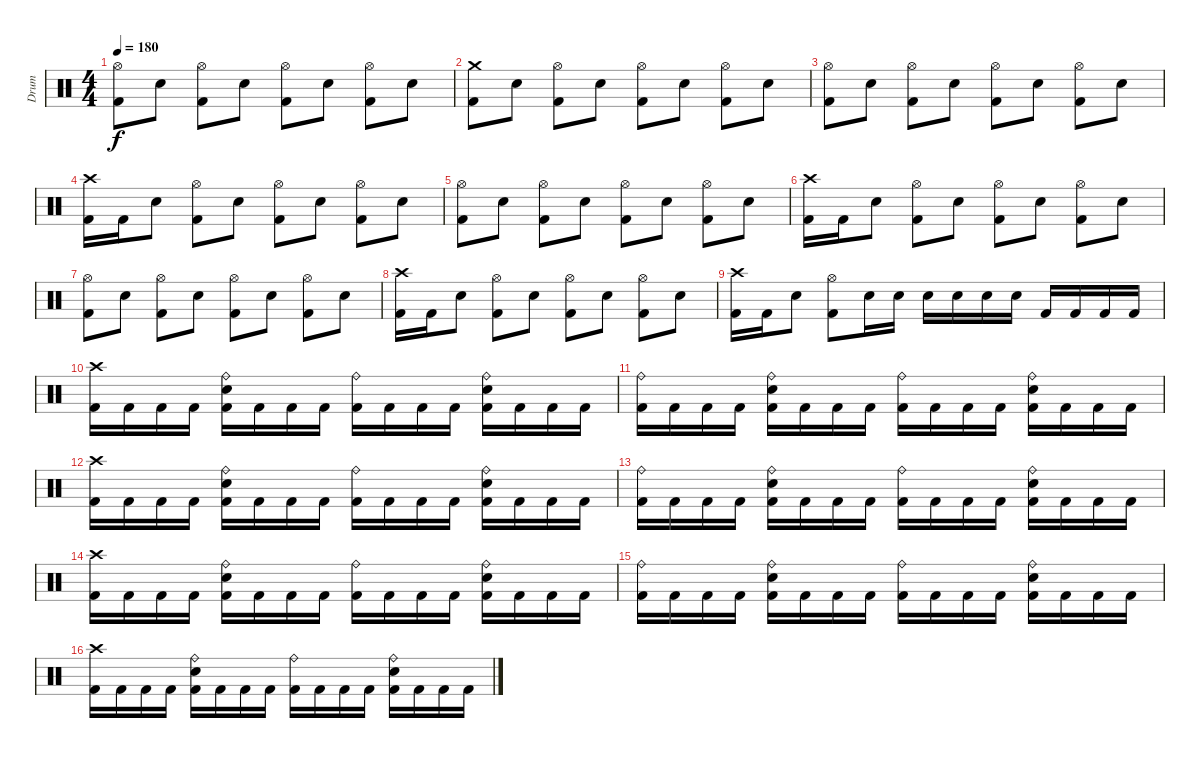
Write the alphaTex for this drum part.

\track ("Drum" "Drum") {instrument percussion}
\staff {score}
\articulation defaults
\ts (4 4)
\tempo 180
\clef neutral
\ks c
("Hi-Hat (open)" "Kick (hit) 2").8{dy f} "Electric Snare (hit)".8 ("Hi-Hat (open)" "Kick (hit) 2").8 "Electric Snare (hit)".8 ("Hi-Hat (open)" "Kick (hit) 2").8 "Electric Snare (hit)".8 ("Hi-Hat (open)" "Kick (hit) 2").8 "Electric Snare (hit)".8 |
("Crash medium (hit)" "Kick (hit) 2").8 "Electric Snare (hit)".8 ("Hi-Hat (open)" "Kick (hit) 2").8 "Electric Snare (hit)".8 ("Hi-Hat (open)" "Kick (hit) 2").8 "Electric Snare (hit)".8 ("Hi-Hat (open)" "Kick (hit) 2").8 "Electric Snare (hit)".8 |
("Hi-Hat (open)" "Kick (hit) 2").8 "Electric Snare (hit)".8 ("Hi-Hat (open)" "Kick (hit) 2").8 "Electric Snare (hit)".8 ("Hi-Hat (open)" "Kick (hit) 2").8 "Electric Snare (hit)".8 ("Hi-Hat (open)" "Kick (hit) 2").8 "Electric Snare (hit)".8 |
("Crash high (hit)" "Kick (hit) 2").16 "Kick (hit) 2".16 "Electric Snare (hit)".8 ("Hi-Hat (open)" "Kick (hit) 2").8 "Electric Snare (hit)".8 ("Hi-Hat (open)" "Kick (hit) 2").8 "Electric Snare (hit)".8 ("Hi-Hat (open)" "Kick (hit) 2").8 "Electric Snare (hit)".8 |
("Hi-Hat (open)" "Kick (hit) 2").8 "Electric Snare (hit)".8 ("Hi-Hat (open)" "Kick (hit) 2").8 "Electric Snare (hit)".8 ("Hi-Hat (open)" "Kick (hit) 2").8 "Electric Snare (hit)".8 ("Hi-Hat (open)" "Kick (hit) 2").8 "Electric Snare (hit)".8 |
("Crash high (hit)" "Kick (hit) 2").16 "Kick (hit) 2".16 "Electric Snare (hit)".8 ("Hi-Hat (open)" "Kick (hit) 2").8 "Electric Snare (hit)".8 ("Hi-Hat (open)" "Kick (hit) 2").8 "Electric Snare (hit)".8 ("Hi-Hat (open)" "Kick (hit) 2").8 "Electric Snare (hit)".8 |
("Hi-Hat (open)" "Kick (hit) 2").8 "Electric Snare (hit)".8 ("Hi-Hat (open)" "Kick (hit) 2").8 "Electric Snare (hit)".8 ("Hi-Hat (open)" "Kick (hit) 2").8 "Electric Snare (hit)".8 ("Hi-Hat (open)" "Kick (hit) 2").8 "Electric Snare (hit)".8 |
("Crash high (hit)" "Kick (hit) 2").16 "Kick (hit) 2".16 "Electric Snare (hit)".8 ("Hi-Hat (open)" "Kick (hit) 2").8 "Electric Snare (hit)".8 ("Hi-Hat (open)" "Kick (hit) 2").8 "Electric Snare (hit)".8 ("Hi-Hat (open)" "Kick (hit) 2").8 "Electric Snare (hit)".8 |
("Crash high (hit)" "Kick (hit) 2").16 "Kick (hit) 2".16 "Electric Snare (hit)".8 ("Hi-Hat (open)" "Kick (hit) 2").8 "Electric Snare (hit)".16 "Electric Snare (hit)".16 "Electric Snare (hit)".16 "Electric Snare (hit)".16 "Electric Snare (hit)".16 "Electric Snare (hit)".16 "Kick (hit) 2".16 "Kick (hit) 2".16 "Kick (hit) 2".16 "Kick (hit) 2".16 |
("Crash high (hit)" "Kick (hit) 2").16 "Kick (hit) 2".16 "Kick (hit) 2".16 "Kick (hit) 2".16 ("Ride (bell)" "Electric Snare (hit)" "Kick (hit) 2").16 "Kick (hit) 2".16 "Kick (hit) 2".16 "Kick (hit) 2".16 ("Ride (bell)" "Kick (hit) 2").16 "Kick (hit) 2".16 "Kick (hit) 2".16 "Kick (hit) 2".16 ("Ride (bell)" "Electric Snare (hit)" "Kick (hit) 2").16 "Kick (hit) 2".16 "Kick (hit) 2".16 "Kick (hit) 2".16 |
("Ride (bell)" "Kick (hit) 2").16 "Kick (hit) 2".16 "Kick (hit) 2".16 "Kick (hit) 2".16 ("Ride (bell)" "Electric Snare (hit)" "Kick (hit) 2").16 "Kick (hit) 2".16 "Kick (hit) 2".16 "Kick (hit) 2".16 ("Ride (bell)" "Kick (hit) 2").16 "Kick (hit) 2".16 "Kick (hit) 2".16 "Kick (hit) 2".16 ("Ride (bell)" "Electric Snare (hit)" "Kick (hit) 2").16 "Kick (hit) 2".16 "Kick (hit) 2".16 "Kick (hit) 2".16 |
("Crash high (hit)" "Kick (hit) 2").16 "Kick (hit) 2".16 "Kick (hit) 2".16 "Kick (hit) 2".16 ("Ride (bell)" "Electric Snare (hit)" "Kick (hit) 2").16 "Kick (hit) 2".16 "Kick (hit) 2".16 "Kick (hit) 2".16 ("Ride (bell)" "Kick (hit) 2").16 "Kick (hit) 2".16 "Kick (hit) 2".16 "Kick (hit) 2".16 ("Ride (bell)" "Electric Snare (hit)" "Kick (hit) 2").16 "Kick (hit) 2".16 "Kick (hit) 2".16 "Kick (hit) 2".16 |
("Ride (bell)" "Kick (hit) 2").16 "Kick (hit) 2".16 "Kick (hit) 2".16 "Kick (hit) 2".16 ("Ride (bell)" "Electric Snare (hit)" "Kick (hit) 2").16 "Kick (hit) 2".16 "Kick (hit) 2".16 "Kick (hit) 2".16 ("Ride (bell)" "Kick (hit) 2").16 "Kick (hit) 2".16 "Kick (hit) 2".16 "Kick (hit) 2".16 ("Ride (bell)" "Electric Snare (hit)" "Kick (hit) 2").16 "Kick (hit) 2".16 "Kick (hit) 2".16 "Kick (hit) 2".16 |
("Crash high (hit)" "Kick (hit) 2").16 "Kick (hit) 2".16 "Kick (hit) 2".16 "Kick (hit) 2".16 ("Ride (bell)" "Electric Snare (hit)" "Kick (hit) 2").16 "Kick (hit) 2".16 "Kick (hit) 2".16 "Kick (hit) 2".16 ("Ride (bell)" "Kick (hit) 2").16 "Kick (hit) 2".16 "Kick (hit) 2".16 "Kick (hit) 2".16 ("Ride (bell)" "Electric Snare (hit)" "Kick (hit) 2").16 "Kick (hit) 2".16 "Kick (hit) 2".16 "Kick (hit) 2".16 |
("Ride (bell)" "Kick (hit) 2").16 "Kick (hit) 2".16 "Kick (hit) 2".16 "Kick (hit) 2".16 ("Ride (bell)" "Electric Snare (hit)" "Kick (hit) 2").16 "Kick (hit) 2".16 "Kick (hit) 2".16 "Kick (hit) 2".16 ("Ride (bell)" "Kick (hit) 2").16 "Kick (hit) 2".16 "Kick (hit) 2".16 "Kick (hit) 2".16 ("Ride (bell)" "Electric Snare (hit)" "Kick (hit) 2").16 "Kick (hit) 2".16 "Kick (hit) 2".16 "Kick (hit) 2".16 |
("Crash high (hit)" "Kick (hit) 2").16 "Kick (hit) 2".16 "Kick (hit) 2".16 "Kick (hit) 2".16 ("Ride (bell)" "Electric Snare (hit)" "Kick (hit) 2").16 "Kick (hit) 2".16 "Kick (hit) 2".16 "Kick (hit) 2".16 ("Ride (bell)" "Kick (hit) 2").16 "Kick (hit) 2".16 "Kick (hit) 2".16 "Kick (hit) 2".16 ("Ride (bell)" "Electric Snare (hit)" "Kick (hit) 2").16 "Kick (hit) 2".16 "Kick (hit) 2".16 "Kick (hit) 2".16
